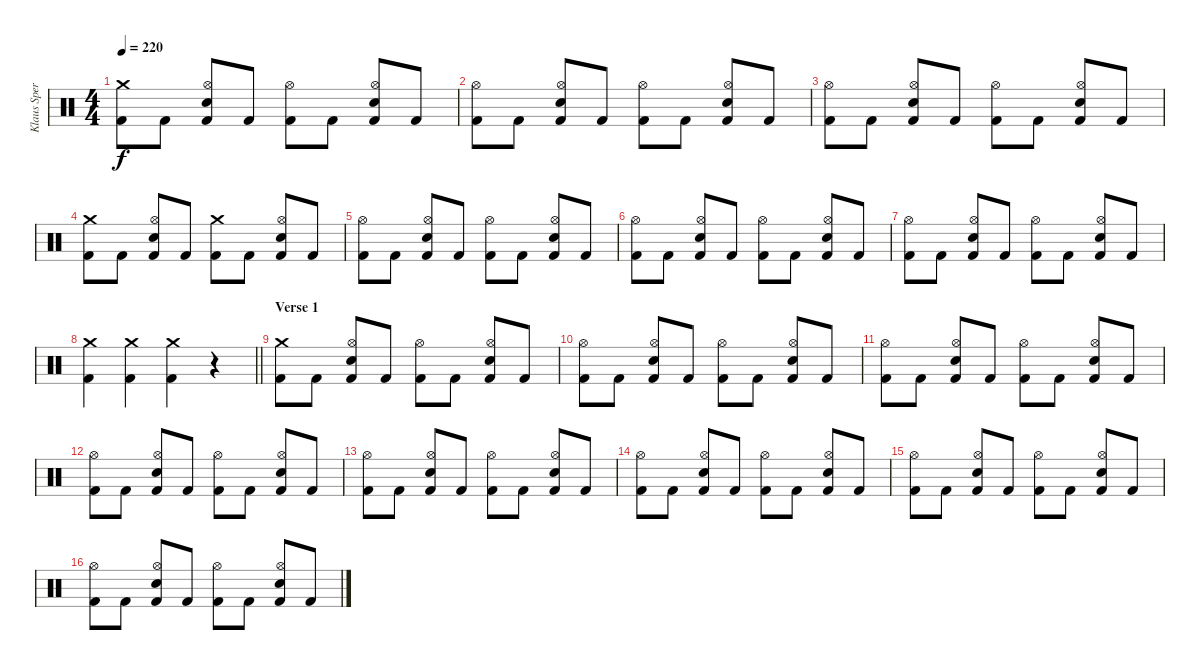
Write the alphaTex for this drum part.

\track ("Klaus Sperling" "Klaus Sper") {instrument percussion}
\staff {score}
\articulation defaults
\ts (4 4)
\tempo 220
\clef neutral
\ks c
("Crash medium (hit)" "Kick (hit) 2").8{dy f} "Kick (hit) 2".8 ("Hi-Hat (open)" "Electric Snare (hit)" "Kick (hit) 2").8 "Kick (hit) 2".8 ("Hi-Hat (open)" "Kick (hit) 2").8 "Kick (hit) 2".8 ("Hi-Hat (open)" "Electric Snare (hit)" "Kick (hit) 2").8 "Kick (hit) 2".8 |
("Hi-Hat (open)" "Kick (hit) 2").8 "Kick (hit) 2".8 ("Hi-Hat (open)" "Electric Snare (hit)" "Kick (hit) 2").8 "Kick (hit) 2".8 ("Hi-Hat (open)" "Kick (hit) 2").8 "Kick (hit) 2".8 ("Hi-Hat (open)" "Electric Snare (hit)" "Kick (hit) 2").8 "Kick (hit) 2".8 |
("Hi-Hat (open)" "Kick (hit) 2").8 "Kick (hit) 2".8 ("Hi-Hat (open)" "Electric Snare (hit)" "Kick (hit) 2").8 "Kick (hit) 2".8 ("Hi-Hat (open)" "Kick (hit) 2").8 "Kick (hit) 2".8 ("Hi-Hat (open)" "Electric Snare (hit)" "Kick (hit) 2").8 "Kick (hit) 2".8 |
("Crash medium (hit)" "Kick (hit) 2").8 "Kick (hit) 2".8 ("Hi-Hat (open)" "Electric Snare (hit)" "Kick (hit) 2").8 "Kick (hit) 2".8 ("Crash medium (hit)" "Kick (hit) 2").8 "Kick (hit) 2".8 ("Hi-Hat (open)" "Electric Snare (hit)" "Kick (hit) 2").8 "Kick (hit) 2".8 |
("Hi-Hat (open)" "Kick (hit) 2").8 "Kick (hit) 2".8 ("Hi-Hat (open)" "Electric Snare (hit)" "Kick (hit) 2").8 "Kick (hit) 2".8 ("Hi-Hat (open)" "Kick (hit) 2").8 "Kick (hit) 2".8 ("Hi-Hat (open)" "Electric Snare (hit)" "Kick (hit) 2").8 "Kick (hit) 2".8 |
("Hi-Hat (open)" "Kick (hit) 2").8 "Kick (hit) 2".8 ("Hi-Hat (open)" "Electric Snare (hit)" "Kick (hit) 2").8 "Kick (hit) 2".8 ("Hi-Hat (open)" "Kick (hit) 2").8 "Kick (hit) 2".8 ("Hi-Hat (open)" "Electric Snare (hit)" "Kick (hit) 2").8 "Kick (hit) 2".8 |
("Hi-Hat (open)" "Kick (hit) 2").8 "Kick (hit) 2".8 ("Hi-Hat (open)" "Electric Snare (hit)" "Kick (hit) 2").8 "Kick (hit) 2".8 ("Hi-Hat (open)" "Kick (hit) 2").8 "Kick (hit) 2".8 ("Hi-Hat (open)" "Electric Snare (hit)" "Kick (hit) 2").8 "Kick (hit) 2".8 |
\barLineRight lightlight
("Crash medium (hit)" "Kick (hit) 2").4 ("Crash medium (hit)" "Kick (hit) 2").4 ("Crash medium (hit)" "Kick (hit) 2").4 r.4 |
\section ("" "Verse 1")
("Crash medium (hit)" "Kick (hit) 2").8 "Kick (hit) 2".8 ("Hi-Hat (open)" "Electric Snare (hit)" "Kick (hit) 2").8 "Kick (hit) 2".8 ("Hi-Hat (open)" "Kick (hit) 2").8 "Kick (hit) 2".8 ("Hi-Hat (open)" "Electric Snare (hit)" "Kick (hit) 2").8 "Kick (hit) 2".8 |
("Hi-Hat (open)" "Kick (hit) 2").8 "Kick (hit) 2".8 ("Hi-Hat (open)" "Electric Snare (hit)" "Kick (hit) 2").8 "Kick (hit) 2".8 ("Hi-Hat (open)" "Kick (hit) 2").8 "Kick (hit) 2".8 ("Hi-Hat (open)" "Electric Snare (hit)" "Kick (hit) 2").8 "Kick (hit) 2".8 |
("Hi-Hat (open)" "Kick (hit) 2").8 "Kick (hit) 2".8 ("Hi-Hat (open)" "Electric Snare (hit)" "Kick (hit) 2").8 "Kick (hit) 2".8 ("Hi-Hat (open)" "Kick (hit) 2").8 "Kick (hit) 2".8 ("Hi-Hat (open)" "Electric Snare (hit)" "Kick (hit) 2").8 "Kick (hit) 2".8 |
("Hi-Hat (open)" "Kick (hit) 2").8 "Kick (hit) 2".8 ("Hi-Hat (open)" "Electric Snare (hit)" "Kick (hit) 2").8 "Kick (hit) 2".8 ("Hi-Hat (open)" "Kick (hit) 2").8 "Kick (hit) 2".8 ("Hi-Hat (open)" "Electric Snare (hit)" "Kick (hit) 2").8 "Kick (hit) 2".8 |
("Hi-Hat (open)" "Kick (hit) 2").8 "Kick (hit) 2".8 ("Hi-Hat (open)" "Electric Snare (hit)" "Kick (hit) 2").8 "Kick (hit) 2".8 ("Hi-Hat (open)" "Kick (hit) 2").8 "Kick (hit) 2".8 ("Hi-Hat (open)" "Electric Snare (hit)" "Kick (hit) 2").8 "Kick (hit) 2".8 |
("Hi-Hat (open)" "Kick (hit) 2").8 "Kick (hit) 2".8 ("Hi-Hat (open)" "Electric Snare (hit)" "Kick (hit) 2").8 "Kick (hit) 2".8 ("Hi-Hat (open)" "Kick (hit) 2").8 "Kick (hit) 2".8 ("Hi-Hat (open)" "Electric Snare (hit)" "Kick (hit) 2").8 "Kick (hit) 2".8 |
("Hi-Hat (open)" "Kick (hit) 2").8 "Kick (hit) 2".8 ("Hi-Hat (open)" "Electric Snare (hit)" "Kick (hit) 2").8 "Kick (hit) 2".8 ("Hi-Hat (open)" "Kick (hit) 2").8 "Kick (hit) 2".8 ("Hi-Hat (open)" "Electric Snare (hit)" "Kick (hit) 2").8 "Kick (hit) 2".8 |
("Hi-Hat (open)" "Kick (hit) 2").8 "Kick (hit) 2".8 ("Hi-Hat (open)" "Electric Snare (hit)" "Kick (hit) 2").8 "Kick (hit) 2".8 ("Hi-Hat (open)" "Kick (hit) 2").8 "Kick (hit) 2".8 ("Hi-Hat (open)" "Electric Snare (hit)" "Kick (hit) 2").8 "Kick (hit) 2".8
